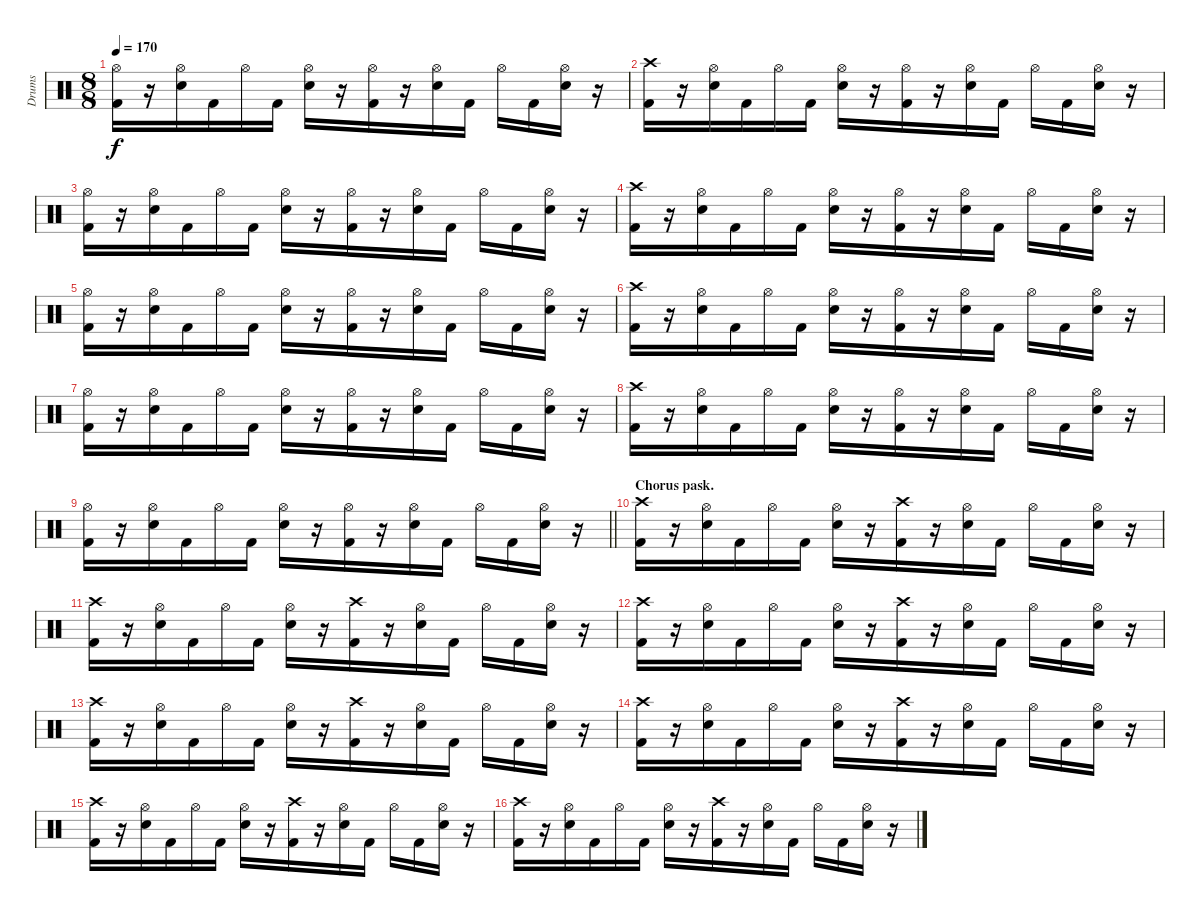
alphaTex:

\track ("Drums" "Drums") {mute instrument percussion}
\staff {score}
\articulation defaults
\ts (8 8)
\tempo 170
\clef neutral
\ks c
("Hi-Hat (open)" "Kick (hit) 2").16{dy f} r.16 ("Hi-Hat (open)" "Snare (hit) 2").16 "Kick (hit) 2".16 "Hi-Hat (open)".16 "Kick (hit) 2".16 ("Hi-Hat (open)" "Snare (hit) 2").16 r.16 ("Hi-Hat (open)" "Kick (hit) 2").16 r.16 ("Hi-Hat (open)" "Snare (hit) 2").16 "Kick (hit) 2".16 "Hi-Hat (open)".16 "Kick (hit) 2".16 ("Hi-Hat (open)" "Snare (hit) 2").16 r.16 |
("Crash high (hit)" "Kick (hit) 2").16 r.16 ("Hi-Hat (open)" "Snare (hit) 2").16 "Kick (hit) 2".16 "Hi-Hat (open)".16 "Kick (hit) 2".16 ("Hi-Hat (open)" "Snare (hit) 2").16 r.16 ("Hi-Hat (open)" "Kick (hit) 2").16 r.16 ("Hi-Hat (open)" "Snare (hit) 2").16 "Kick (hit) 2".16 "Hi-Hat (open)".16 "Kick (hit) 2".16 ("Hi-Hat (open)" "Snare (hit) 2").16 r.16 |
("Hi-Hat (open)" "Kick (hit) 2").16 r.16 ("Hi-Hat (open)" "Snare (hit) 2").16 "Kick (hit) 2".16 "Hi-Hat (open)".16 "Kick (hit) 2".16 ("Hi-Hat (open)" "Snare (hit) 2").16 r.16 ("Hi-Hat (open)" "Kick (hit) 2").16 r.16 ("Hi-Hat (open)" "Snare (hit) 2").16 "Kick (hit) 2".16 "Hi-Hat (open)".16 "Kick (hit) 2".16 ("Hi-Hat (open)" "Snare (hit) 2").16 r.16 |
("Crash high (hit)" "Kick (hit) 2").16 r.16 ("Hi-Hat (open)" "Snare (hit) 2").16 "Kick (hit) 2".16 "Hi-Hat (open)".16 "Kick (hit) 2".16 ("Hi-Hat (open)" "Snare (hit) 2").16 r.16 ("Hi-Hat (open)" "Kick (hit) 2").16 r.16 ("Hi-Hat (open)" "Snare (hit) 2").16 "Kick (hit) 2".16 "Hi-Hat (open)".16 "Kick (hit) 2".16 ("Hi-Hat (open)" "Snare (hit) 2").16 r.16 |
("Hi-Hat (open)" "Kick (hit) 2").16 r.16 ("Hi-Hat (open)" "Snare (hit) 2").16 "Kick (hit) 2".16 "Hi-Hat (open)".16 "Kick (hit) 2".16 ("Hi-Hat (open)" "Snare (hit) 2").16 r.16 ("Hi-Hat (open)" "Kick (hit) 2").16 r.16 ("Hi-Hat (open)" "Snare (hit) 2").16 "Kick (hit) 2".16 "Hi-Hat (open)".16 "Kick (hit) 2".16 ("Hi-Hat (open)" "Snare (hit) 2").16 r.16 |
("Crash high (hit)" "Kick (hit) 2").16 r.16 ("Hi-Hat (open)" "Snare (hit) 2").16 "Kick (hit) 2".16 "Hi-Hat (open)".16 "Kick (hit) 2".16 ("Hi-Hat (open)" "Snare (hit) 2").16 r.16 ("Hi-Hat (open)" "Kick (hit) 2").16 r.16 ("Hi-Hat (open)" "Snare (hit) 2").16 "Kick (hit) 2".16 "Hi-Hat (open)".16 "Kick (hit) 2".16 ("Hi-Hat (open)" "Snare (hit) 2").16 r.16 |
("Hi-Hat (open)" "Kick (hit) 2").16 r.16 ("Hi-Hat (open)" "Snare (hit) 2").16 "Kick (hit) 2".16 "Hi-Hat (open)".16 "Kick (hit) 2".16 ("Hi-Hat (open)" "Snare (hit) 2").16 r.16 ("Hi-Hat (open)" "Kick (hit) 2").16 r.16 ("Hi-Hat (open)" "Snare (hit) 2").16 "Kick (hit) 2".16 "Hi-Hat (open)".16 "Kick (hit) 2".16 ("Hi-Hat (open)" "Snare (hit) 2").16 r.16 |
("Crash high (hit)" "Kick (hit) 2").16 r.16 ("Hi-Hat (open)" "Snare (hit) 2").16 "Kick (hit) 2".16 "Hi-Hat (open)".16 "Kick (hit) 2".16 ("Hi-Hat (open)" "Snare (hit) 2").16 r.16 ("Hi-Hat (open)" "Kick (hit) 2").16 r.16 ("Hi-Hat (open)" "Snare (hit) 2").16 "Kick (hit) 2".16 "Hi-Hat (open)".16 "Kick (hit) 2".16 ("Hi-Hat (open)" "Snare (hit) 2").16 r.16 |
\barLineRight lightlight
("Hi-Hat (open)" "Kick (hit) 2").16 r.16 ("Hi-Hat (open)" "Snare (hit) 2").16 "Kick (hit) 2".16 "Hi-Hat (open)".16 "Kick (hit) 2".16 ("Hi-Hat (open)" "Snare (hit) 2").16 r.16 ("Hi-Hat (open)" "Kick (hit) 2").16 r.16 ("Hi-Hat (open)" "Snare (hit) 2").16 "Kick (hit) 2".16 "Hi-Hat (open)".16 "Kick (hit) 2".16 ("Hi-Hat (open)" "Snare (hit) 2").16 r.16 |
\section ("" "Chorus pask.")
("Crash high (hit)" "Kick (hit) 2").16 r.16 ("Hi-Hat (open)" "Snare (hit) 2").16 "Kick (hit) 2".16 "Hi-Hat (open)".16 "Kick (hit) 2".16 ("Hi-Hat (open)" "Snare (hit) 2").16 r.16 ("Crash high (hit)" "Kick (hit) 2").16 r.16 ("Hi-Hat (open)" "Snare (hit) 2").16 "Kick (hit) 2".16 "Hi-Hat (open)".16 "Kick (hit) 2".16 ("Hi-Hat (open)" "Snare (hit) 2").16 r.16 |
("Crash high (hit)" "Kick (hit) 2").16 r.16 ("Hi-Hat (open)" "Snare (hit) 2").16 "Kick (hit) 2".16 "Hi-Hat (open)".16 "Kick (hit) 2".16 ("Hi-Hat (open)" "Snare (hit) 2").16 r.16 ("Crash high (hit)" "Kick (hit) 2").16 r.16 ("Hi-Hat (open)" "Snare (hit) 2").16 "Kick (hit) 2".16 "Hi-Hat (open)".16 "Kick (hit) 2".16 ("Hi-Hat (open)" "Snare (hit) 2").16 r.16 |
("Crash high (hit)" "Kick (hit) 2").16 r.16 ("Hi-Hat (open)" "Snare (hit) 2").16 "Kick (hit) 2".16 "Hi-Hat (open)".16 "Kick (hit) 2".16 ("Hi-Hat (open)" "Snare (hit) 2").16 r.16 ("Crash high (hit)" "Kick (hit) 2").16 r.16 ("Hi-Hat (open)" "Snare (hit) 2").16 "Kick (hit) 2".16 "Hi-Hat (open)".16 "Kick (hit) 2".16 ("Hi-Hat (open)" "Snare (hit) 2").16 r.16 |
("Crash high (hit)" "Kick (hit) 2").16 r.16 ("Hi-Hat (open)" "Snare (hit) 2").16 "Kick (hit) 2".16 "Hi-Hat (open)".16 "Kick (hit) 2".16 ("Hi-Hat (open)" "Snare (hit) 2").16 r.16 ("Crash high (hit)" "Kick (hit) 2").16 r.16 ("Hi-Hat (open)" "Snare (hit) 2").16 "Kick (hit) 2".16 "Hi-Hat (open)".16 "Kick (hit) 2".16 ("Hi-Hat (open)" "Snare (hit) 2").16 r.16 |
("Crash high (hit)" "Kick (hit) 2").16 r.16 ("Hi-Hat (open)" "Snare (hit) 2").16 "Kick (hit) 2".16 "Hi-Hat (open)".16 "Kick (hit) 2".16 ("Hi-Hat (open)" "Snare (hit) 2").16 r.16 ("Crash high (hit)" "Kick (hit) 2").16 r.16 ("Hi-Hat (open)" "Snare (hit) 2").16 "Kick (hit) 2".16 "Hi-Hat (open)".16 "Kick (hit) 2".16 ("Hi-Hat (open)" "Snare (hit) 2").16 r.16 |
("Crash high (hit)" "Kick (hit) 2").16 r.16 ("Hi-Hat (open)" "Snare (hit) 2").16 "Kick (hit) 2".16 "Hi-Hat (open)".16 "Kick (hit) 2".16 ("Hi-Hat (open)" "Snare (hit) 2").16 r.16 ("Crash high (hit)" "Kick (hit) 2").16 r.16 ("Hi-Hat (open)" "Snare (hit) 2").16 "Kick (hit) 2".16 "Hi-Hat (open)".16 "Kick (hit) 2".16 ("Hi-Hat (open)" "Snare (hit) 2").16 r.16 |
("Crash high (hit)" "Kick (hit) 2").16 r.16 ("Hi-Hat (open)" "Snare (hit) 2").16 "Kick (hit) 2".16 "Hi-Hat (open)".16 "Kick (hit) 2".16 ("Hi-Hat (open)" "Snare (hit) 2").16 r.16 ("Crash high (hit)" "Kick (hit) 2").16 r.16 ("Hi-Hat (open)" "Snare (hit) 2").16 "Kick (hit) 2".16 "Hi-Hat (open)".16 "Kick (hit) 2".16 ("Hi-Hat (open)" "Snare (hit) 2").16 r.16
